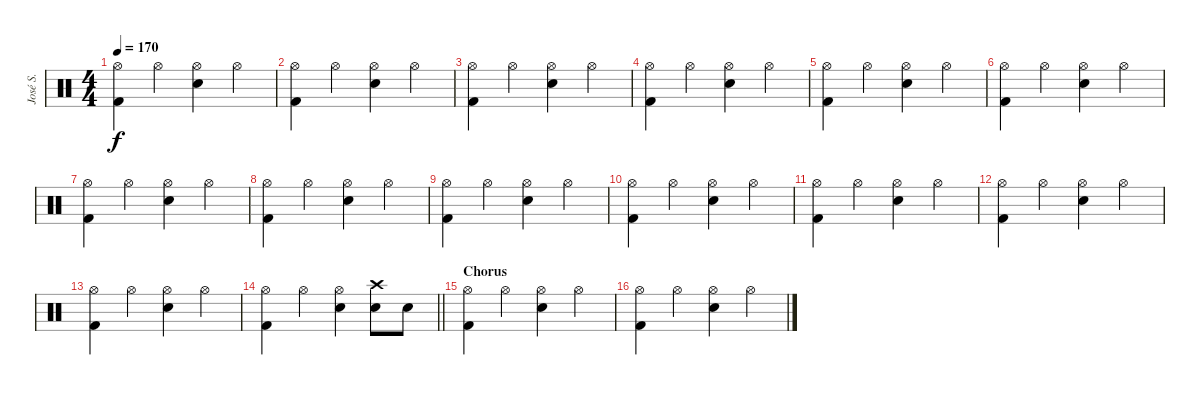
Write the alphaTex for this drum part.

\track ("José S." "José S.") {instrument percussion}
\staff {score}
\articulation defaults
\ts (4 4)
\tempo 170
\clef neutral
\ks c
("Hi-Hat (open)" "Kick (hit) 2").4{dy f} "Hi-Hat (open)".4 ("Hi-Hat (open)" "Electric Snare (hit)").4 "Hi-Hat (open)".4 |
("Hi-Hat (open)" "Kick (hit) 2").4 "Hi-Hat (open)".4 ("Hi-Hat (open)" "Electric Snare (hit)").4 "Hi-Hat (open)".4 |
("Hi-Hat (open)" "Kick (hit) 2").4 "Hi-Hat (open)".4 ("Hi-Hat (open)" "Electric Snare (hit)").4 "Hi-Hat (open)".4 |
("Hi-Hat (open)" "Kick (hit) 2").4 "Hi-Hat (open)".4 ("Hi-Hat (open)" "Electric Snare (hit)").4 "Hi-Hat (open)".4 |
("Hi-Hat (open)" "Kick (hit) 2").4 "Hi-Hat (open)".4 ("Hi-Hat (open)" "Electric Snare (hit)").4 "Hi-Hat (open)".4 |
("Hi-Hat (open)" "Kick (hit) 2").4 "Hi-Hat (open)".4 ("Hi-Hat (open)" "Electric Snare (hit)").4 "Hi-Hat (open)".4 |
("Hi-Hat (open)" "Kick (hit) 2").4 "Hi-Hat (open)".4 ("Hi-Hat (open)" "Electric Snare (hit)").4 "Hi-Hat (open)".4 |
("Hi-Hat (open)" "Kick (hit) 2").4 "Hi-Hat (open)".4 ("Hi-Hat (open)" "Electric Snare (hit)").4 "Hi-Hat (open)".4 |
("Hi-Hat (open)" "Kick (hit) 2").4 "Hi-Hat (open)".4 ("Hi-Hat (open)" "Electric Snare (hit)").4 "Hi-Hat (open)".4 |
("Hi-Hat (open)" "Kick (hit) 2").4 "Hi-Hat (open)".4 ("Hi-Hat (open)" "Electric Snare (hit)").4 "Hi-Hat (open)".4 |
("Hi-Hat (open)" "Kick (hit) 2").4 "Hi-Hat (open)".4 ("Hi-Hat (open)" "Electric Snare (hit)").4 "Hi-Hat (open)".4 |
("Hi-Hat (open)" "Kick (hit) 2").4 "Hi-Hat (open)".4 ("Hi-Hat (open)" "Electric Snare (hit)").4 "Hi-Hat (open)".4 |
("Hi-Hat (open)" "Kick (hit) 2").4 "Hi-Hat (open)".4 ("Hi-Hat (open)" "Electric Snare (hit)").4 "Hi-Hat (open)".4 |
\barLineRight lightlight
("Hi-Hat (open)" "Kick (hit) 2").4 "Hi-Hat (open)".4 ("Hi-Hat (open)" "Electric Snare (hit)").4 ("Crash high (hit)" "Electric Snare (hit)").8 "Electric Snare (hit)".8 |
\section ("" "Chorus")
("Hi-Hat (open)" "Kick (hit) 2").4 "Hi-Hat (open)".4 ("Hi-Hat (open)" "Electric Snare (hit)").4 "Hi-Hat (open)".4 |
("Hi-Hat (open)" "Kick (hit) 2").4 "Hi-Hat (open)".4 ("Hi-Hat (open)" "Electric Snare (hit)").4 "Hi-Hat (open)".4
